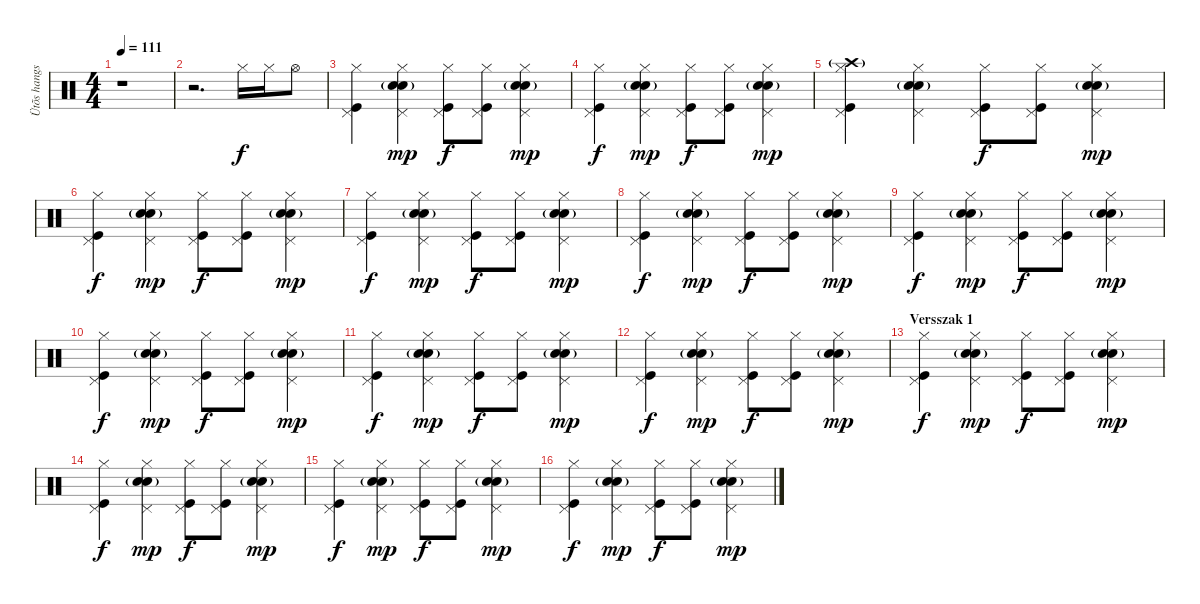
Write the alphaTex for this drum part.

\track ("Ütõs hangszer" "Ütõs hangs") {instrument percussion}
\staff {score}
\articulation defaults
\ts (4 4)
\tempo 111
\clef neutral
\ks c
r.1{dy f} |
r.2{d} "Hi-Hat (closed)".16 "Hi-Hat (closed)".16 "Hi-Hat (open)".8 |
("Hi-Hat (closed)" "Pedal Hi-Hat (hit)" "Kick (hit)").4 ("Hi-Hat (closed)" "Electric Snare (hit)"{g} "Snare (hit) 2" "Pedal Hi-Hat (hit)").4{dy mp} ("Hi-Hat (closed)" "Pedal Hi-Hat (hit)" "Kick (hit)").8{dy f} ("Hi-Hat (closed)" "Pedal Hi-Hat (hit)" "Kick (hit)").8 ("Hi-Hat (closed)" "Electric Snare (hit)"{g} "Snare (hit) 2" "Pedal Hi-Hat (hit)").4{dy mp} |
("Hi-Hat (closed)" "Pedal Hi-Hat (hit)" "Kick (hit)").4{dy f} ("Hi-Hat (closed)" "Electric Snare (hit)"{g} "Snare (hit) 2" "Pedal Hi-Hat (hit)").4{dy mp} ("Hi-Hat (closed)" "Pedal Hi-Hat (hit)" "Kick (hit)").8{dy f} ("Hi-Hat (closed)" "Pedal Hi-Hat (hit)" "Kick (hit)").8 ("Hi-Hat (closed)" "Electric Snare (hit)"{g} "Snare (hit) 2" "Pedal Hi-Hat (hit)").4{dy mp} |
("Hi-Hat (closed)" "Pedal Hi-Hat (hit)" "Crash high (hit)"{g} "Kick (hit)").4 ("Hi-Hat (closed)" "Electric Snare (hit)"{g} "Snare (hit) 2" "Pedal Hi-Hat (hit)").4 ("Hi-Hat (closed)" "Pedal Hi-Hat (hit)" "Kick (hit)").8{dy f} ("Hi-Hat (closed)" "Pedal Hi-Hat (hit)" "Kick (hit)").8 ("Hi-Hat (closed)" "Electric Snare (hit)"{g} "Snare (hit) 2" "Pedal Hi-Hat (hit)").4{dy mp} |
("Hi-Hat (closed)" "Pedal Hi-Hat (hit)" "Kick (hit)").4{dy f} ("Hi-Hat (closed)" "Electric Snare (hit)"{g} "Snare (hit) 2" "Pedal Hi-Hat (hit)").4{dy mp} ("Hi-Hat (closed)" "Pedal Hi-Hat (hit)" "Kick (hit)").8{dy f} ("Hi-Hat (closed)" "Pedal Hi-Hat (hit)" "Kick (hit)").8 ("Hi-Hat (closed)" "Electric Snare (hit)"{g} "Snare (hit) 2" "Pedal Hi-Hat (hit)").4{dy mp} |
("Hi-Hat (closed)" "Pedal Hi-Hat (hit)" "Kick (hit)").4{dy f} ("Hi-Hat (closed)" "Electric Snare (hit)"{g} "Snare (hit) 2" "Pedal Hi-Hat (hit)").4{dy mp} ("Hi-Hat (closed)" "Pedal Hi-Hat (hit)" "Kick (hit)").8{dy f} ("Hi-Hat (closed)" "Pedal Hi-Hat (hit)" "Kick (hit)").8 ("Hi-Hat (closed)" "Electric Snare (hit)"{g} "Snare (hit) 2" "Pedal Hi-Hat (hit)").4{dy mp} |
("Hi-Hat (closed)" "Pedal Hi-Hat (hit)" "Kick (hit)").4{dy f} ("Hi-Hat (closed)" "Electric Snare (hit)"{g} "Snare (hit) 2" "Pedal Hi-Hat (hit)").4{dy mp} ("Hi-Hat (closed)" "Pedal Hi-Hat (hit)" "Kick (hit)").8{dy f} ("Hi-Hat (closed)" "Pedal Hi-Hat (hit)" "Kick (hit)").8 ("Hi-Hat (closed)" "Electric Snare (hit)"{g} "Snare (hit) 2" "Pedal Hi-Hat (hit)").4{dy mp} |
("Hi-Hat (closed)" "Pedal Hi-Hat (hit)" "Kick (hit)").4{dy f} ("Hi-Hat (closed)" "Electric Snare (hit)"{g} "Snare (hit) 2" "Pedal Hi-Hat (hit)").4{dy mp} ("Hi-Hat (closed)" "Pedal Hi-Hat (hit)" "Kick (hit)").8{dy f} ("Hi-Hat (closed)" "Pedal Hi-Hat (hit)" "Kick (hit)").8 ("Hi-Hat (closed)" "Electric Snare (hit)"{g} "Snare (hit) 2" "Pedal Hi-Hat (hit)").4{dy mp} |
("Hi-Hat (closed)" "Pedal Hi-Hat (hit)" "Kick (hit)").4{dy f} ("Hi-Hat (closed)" "Electric Snare (hit)"{g} "Snare (hit) 2" "Pedal Hi-Hat (hit)").4{dy mp} ("Hi-Hat (closed)" "Pedal Hi-Hat (hit)" "Kick (hit)").8{dy f} ("Hi-Hat (closed)" "Pedal Hi-Hat (hit)" "Kick (hit)").8 ("Hi-Hat (closed)" "Electric Snare (hit)"{g} "Snare (hit) 2" "Pedal Hi-Hat (hit)").4{dy mp} |
("Hi-Hat (closed)" "Pedal Hi-Hat (hit)" "Kick (hit)").4{dy f} ("Hi-Hat (closed)" "Electric Snare (hit)"{g} "Snare (hit) 2" "Pedal Hi-Hat (hit)").4{dy mp} ("Hi-Hat (closed)" "Pedal Hi-Hat (hit)" "Kick (hit)").8{dy f} ("Hi-Hat (closed)" "Pedal Hi-Hat (hit)" "Kick (hit)").8 ("Hi-Hat (closed)" "Electric Snare (hit)"{g} "Snare (hit) 2" "Pedal Hi-Hat (hit)").4{dy mp} |
("Hi-Hat (closed)" "Pedal Hi-Hat (hit)" "Kick (hit)").4{dy f} ("Hi-Hat (closed)" "Electric Snare (hit)"{g} "Snare (hit) 2" "Pedal Hi-Hat (hit)").4{dy mp} ("Hi-Hat (closed)" "Pedal Hi-Hat (hit)" "Kick (hit)").8{dy f} ("Hi-Hat (closed)" "Pedal Hi-Hat (hit)" "Kick (hit)").8 ("Hi-Hat (closed)" "Electric Snare (hit)"{g} "Snare (hit) 2" "Pedal Hi-Hat (hit)").4{dy mp} |
\section ("" "Versszak 1")
("Hi-Hat (closed)" "Pedal Hi-Hat (hit)" "Kick (hit)").4{dy f} ("Hi-Hat (closed)" "Electric Snare (hit)"{g} "Snare (hit) 2" "Pedal Hi-Hat (hit)").4{dy mp} ("Hi-Hat (closed)" "Pedal Hi-Hat (hit)" "Kick (hit)").8{dy f} ("Hi-Hat (closed)" "Pedal Hi-Hat (hit)" "Kick (hit)").8 ("Hi-Hat (closed)" "Electric Snare (hit)"{g} "Snare (hit) 2" "Pedal Hi-Hat (hit)").4{dy mp} |
("Hi-Hat (closed)" "Pedal Hi-Hat (hit)" "Kick (hit)").4{dy f} ("Hi-Hat (closed)" "Electric Snare (hit)"{g} "Snare (hit) 2" "Pedal Hi-Hat (hit)").4{dy mp} ("Hi-Hat (closed)" "Pedal Hi-Hat (hit)" "Kick (hit)").8{dy f} ("Hi-Hat (closed)" "Pedal Hi-Hat (hit)" "Kick (hit)").8 ("Hi-Hat (closed)" "Electric Snare (hit)"{g} "Snare (hit) 2" "Pedal Hi-Hat (hit)").4{dy mp} |
("Hi-Hat (closed)" "Pedal Hi-Hat (hit)" "Kick (hit)").4{dy f} ("Hi-Hat (closed)" "Electric Snare (hit)"{g} "Snare (hit) 2" "Pedal Hi-Hat (hit)").4{dy mp} ("Hi-Hat (closed)" "Pedal Hi-Hat (hit)" "Kick (hit)").8{dy f} ("Hi-Hat (closed)" "Pedal Hi-Hat (hit)" "Kick (hit)").8 ("Hi-Hat (closed)" "Electric Snare (hit)"{g} "Snare (hit) 2" "Pedal Hi-Hat (hit)").4{dy mp} |
("Hi-Hat (closed)" "Pedal Hi-Hat (hit)" "Kick (hit)").4{dy f} ("Hi-Hat (closed)" "Electric Snare (hit)"{g} "Snare (hit) 2" "Pedal Hi-Hat (hit)").4{dy mp} ("Hi-Hat (closed)" "Pedal Hi-Hat (hit)" "Kick (hit)").8{dy f} ("Hi-Hat (closed)" "Pedal Hi-Hat (hit)" "Kick (hit)").8 ("Hi-Hat (closed)" "Electric Snare (hit)"{g} "Snare (hit) 2" "Pedal Hi-Hat (hit)").4{dy mp}
